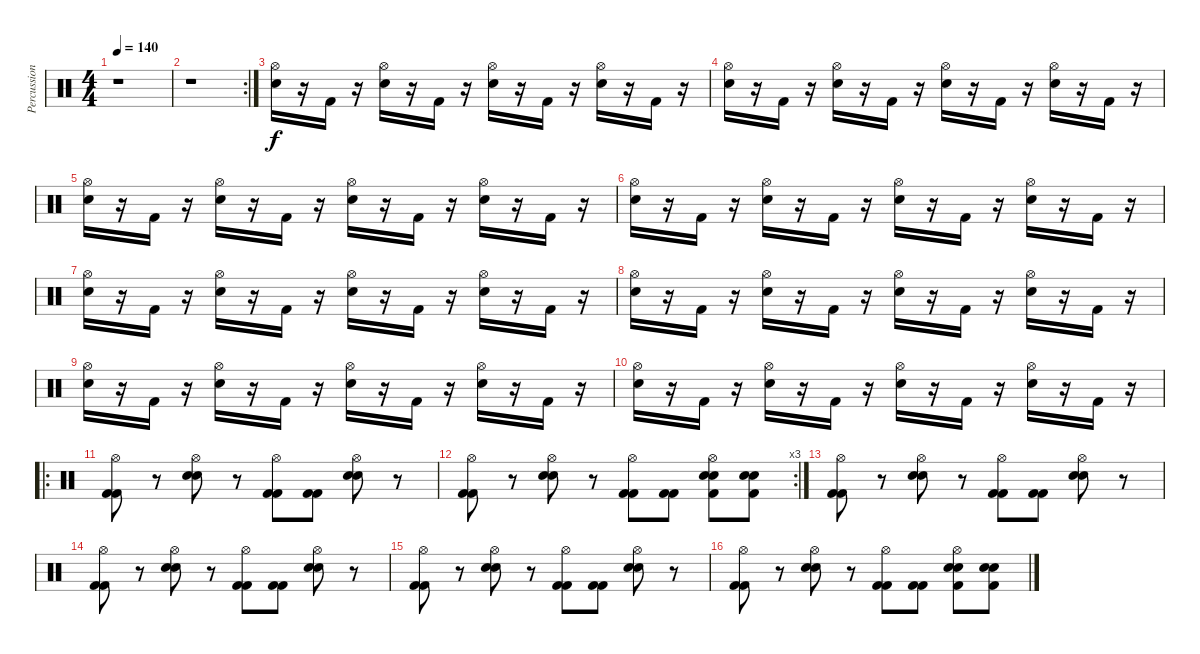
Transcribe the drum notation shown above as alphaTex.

\track ("Percussions" "Percussion") {instrument percussion}
\staff {score}
\articulation defaults
\ts (4 4)
\tempo 140
\clef neutral
\ks c
r.1{dy f} |
\rc 2
r.1 |
("Hi-Hat (open)" "Snare (hit) 2").16 r.16 "Kick (hit) 2".16 r.16 ("Hi-Hat (open)" "Snare (hit) 2").16 r.16 "Kick (hit) 2".16 r.16 ("Hi-Hat (open)" "Snare (hit) 2").16 r.16 "Kick (hit) 2".16 r.16 ("Hi-Hat (open)" "Snare (hit) 2").16 r.16 "Kick (hit) 2".16 r.16 |
("Hi-Hat (open)" "Snare (hit) 2").16 r.16 "Kick (hit) 2".16 r.16 ("Hi-Hat (open)" "Snare (hit) 2").16 r.16 "Kick (hit) 2".16 r.16 ("Hi-Hat (open)" "Snare (hit) 2").16 r.16 "Kick (hit) 2".16 r.16 ("Hi-Hat (open)" "Snare (hit) 2").16 r.16 "Kick (hit) 2".16 r.16 |
("Hi-Hat (open)" "Snare (hit) 2").16 r.16 "Kick (hit) 2".16 r.16 ("Hi-Hat (open)" "Snare (hit) 2").16 r.16 "Kick (hit) 2".16 r.16 ("Hi-Hat (open)" "Snare (hit) 2").16 r.16 "Kick (hit) 2".16 r.16 ("Hi-Hat (open)" "Snare (hit) 2").16 r.16 "Kick (hit) 2".16 r.16 |
("Hi-Hat (open)" "Snare (hit) 2").16 r.16 "Kick (hit) 2".16 r.16 ("Hi-Hat (open)" "Snare (hit) 2").16 r.16 "Kick (hit) 2".16 r.16 ("Hi-Hat (open)" "Snare (hit) 2").16 r.16 "Kick (hit) 2".16 r.16 ("Hi-Hat (open)" "Snare (hit) 2").16 r.16 "Kick (hit) 2".16 r.16 |
("Hi-Hat (open)" "Snare (hit) 2").16 r.16 "Kick (hit) 2".16 r.16 ("Hi-Hat (open)" "Snare (hit) 2").16 r.16 "Kick (hit) 2".16 r.16 ("Hi-Hat (open)" "Snare (hit) 2").16 r.16 "Kick (hit) 2".16 r.16 ("Hi-Hat (open)" "Snare (hit) 2").16 r.16 "Kick (hit) 2".16 r.16 |
("Hi-Hat (open)" "Snare (hit) 2").16 r.16 "Kick (hit) 2".16 r.16 ("Hi-Hat (open)" "Snare (hit) 2").16 r.16 "Kick (hit) 2".16 r.16 ("Hi-Hat (open)" "Snare (hit) 2").16 r.16 "Kick (hit) 2".16 r.16 ("Hi-Hat (open)" "Snare (hit) 2").16 r.16 "Kick (hit) 2".16 r.16 |
("Hi-Hat (open)" "Snare (hit) 2").16 r.16 "Kick (hit) 2".16 r.16 ("Hi-Hat (open)" "Snare (hit) 2").16 r.16 "Kick (hit) 2".16 r.16 ("Hi-Hat (open)" "Snare (hit) 2").16 r.16 "Kick (hit) 2".16 r.16 ("Hi-Hat (open)" "Snare (hit) 2").16 r.16 "Kick (hit) 2".16 r.16 |
("Hi-Hat (open)" "Snare (hit) 2").16 r.16 "Kick (hit) 2".16 r.16 ("Hi-Hat (open)" "Snare (hit) 2").16 r.16 "Kick (hit) 2".16 r.16 ("Hi-Hat (open)" "Snare (hit) 2").16 r.16 "Kick (hit) 2".16 r.16 ("Hi-Hat (open)" "Snare (hit) 2").16 r.16 "Kick (hit) 2".16 r.16 |
\ro
("Hi-Hat (open)" "Kick (hit) 2" "Kick (hit) 2").8 r.8 ("Hi-Hat (open)" "Snare (hit) 2" "Snare (hit) 2").8 r.8 ("Hi-Hat (open)" "Kick (hit) 2" "Kick (hit) 2").8 ("Kick (hit) 2" "Kick (hit) 2").8 ("Hi-Hat (open)" "Snare (hit) 2" "Snare (hit) 2").8 r.8 |
\rc 3
("Hi-Hat (open)" "Kick (hit) 2" "Kick (hit) 2").8 r.8 ("Hi-Hat (open)" "Snare (hit) 2" "Snare (hit) 2").8 r.8 ("Hi-Hat (open)" "Kick (hit) 2" "Kick (hit) 2").8 ("Kick (hit) 2" "Kick (hit) 2").8 ("Hi-Hat (open)" "Snare (hit) 2" "Snare (hit) 2" "Kick (hit) 2").8 ("Snare (hit) 2" "Snare (hit) 2" "Kick (hit) 2").8 |
("Hi-Hat (open)" "Kick (hit) 2" "Kick (hit) 2").8 r.8 ("Hi-Hat (open)" "Snare (hit) 2" "Snare (hit) 2").8 r.8 ("Hi-Hat (open)" "Kick (hit) 2" "Kick (hit) 2").8 ("Kick (hit) 2" "Kick (hit) 2").8 ("Hi-Hat (open)" "Snare (hit) 2" "Snare (hit) 2").8 r.8 |
("Hi-Hat (open)" "Kick (hit) 2" "Kick (hit) 2").8 r.8 ("Hi-Hat (open)" "Snare (hit) 2" "Snare (hit) 2").8 r.8 ("Hi-Hat (open)" "Kick (hit) 2" "Kick (hit) 2").8 ("Kick (hit) 2" "Kick (hit) 2").8 ("Hi-Hat (open)" "Snare (hit) 2" "Snare (hit) 2").8 r.8 |
("Hi-Hat (open)" "Kick (hit) 2" "Kick (hit) 2").8 r.8 ("Hi-Hat (open)" "Snare (hit) 2" "Snare (hit) 2").8 r.8 ("Hi-Hat (open)" "Kick (hit) 2" "Kick (hit) 2").8 ("Kick (hit) 2" "Kick (hit) 2").8 ("Hi-Hat (open)" "Snare (hit) 2" "Snare (hit) 2").8 r.8 |
("Hi-Hat (open)" "Kick (hit) 2" "Kick (hit) 2").8 r.8 ("Hi-Hat (open)" "Snare (hit) 2" "Snare (hit) 2").8 r.8 ("Hi-Hat (open)" "Kick (hit) 2" "Kick (hit) 2").8 ("Kick (hit) 2" "Kick (hit) 2").8 ("Hi-Hat (open)" "Snare (hit) 2" "Snare (hit) 2" "Kick (hit) 2").8 ("Snare (hit) 2" "Snare (hit) 2" "Kick (hit) 2").8
